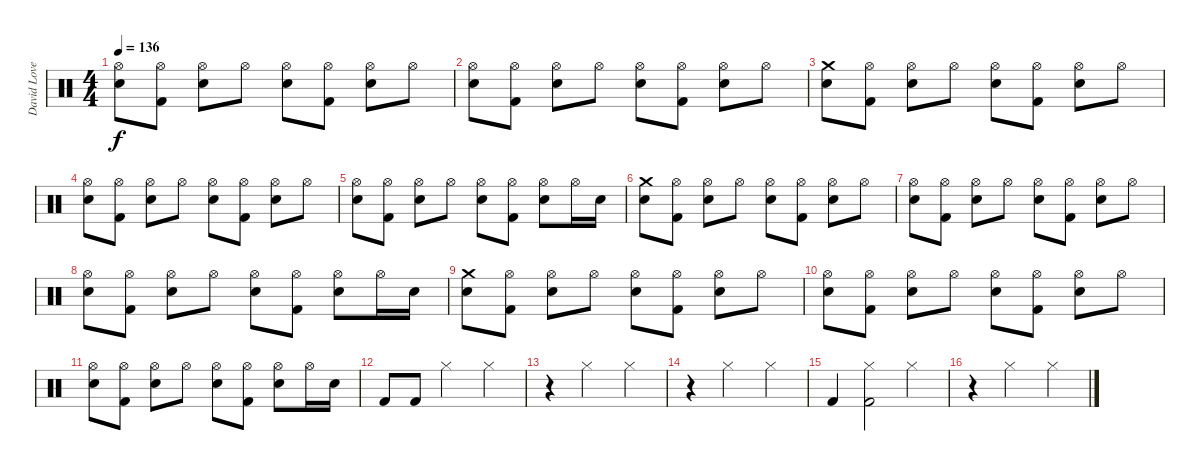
\track ("David Lovering (Drums)" "David Love") {instrument percussion}
\staff {score}
\articulation defaults
\ts (4 4)
\tempo 136
\clef neutral
\ks c
("Hi-Hat (open)" "Electric Snare (hit)").8{dy f} ("Hi-Hat (open)" "Kick (hit) 2").8 ("Hi-Hat (open)" "Electric Snare (hit)").8 "Hi-Hat (open)".8 ("Hi-Hat (open)" "Electric Snare (hit)").8 ("Hi-Hat (open)" "Kick (hit) 2").8 ("Hi-Hat (open)" "Electric Snare (hit)").8 "Hi-Hat (open)".8 |
("Hi-Hat (open)" "Electric Snare (hit)").8 ("Hi-Hat (open)" "Kick (hit) 2").8 ("Hi-Hat (open)" "Electric Snare (hit)").8 "Hi-Hat (open)".8 ("Hi-Hat (open)" "Electric Snare (hit)").8 ("Hi-Hat (open)" "Kick (hit) 2").8 ("Hi-Hat (open)" "Electric Snare (hit)").8 "Hi-Hat (open)".8 |
("Crash medium (hit)" "Electric Snare (hit)").8 ("Hi-Hat (open)" "Kick (hit) 2").8 ("Hi-Hat (open)" "Electric Snare (hit)").8 "Hi-Hat (open)".8 ("Hi-Hat (open)" "Electric Snare (hit)").8 ("Hi-Hat (open)" "Kick (hit) 2").8 ("Hi-Hat (open)" "Electric Snare (hit)").8 "Hi-Hat (open)".8 |
("Hi-Hat (open)" "Electric Snare (hit)").8 ("Hi-Hat (open)" "Kick (hit) 2").8 ("Hi-Hat (open)" "Electric Snare (hit)").8 "Hi-Hat (open)".8 ("Hi-Hat (open)" "Electric Snare (hit)").8 ("Hi-Hat (open)" "Kick (hit) 2").8 ("Hi-Hat (open)" "Electric Snare (hit)").8 "Hi-Hat (open)".8 |
("Hi-Hat (open)" "Electric Snare (hit)").8 ("Hi-Hat (open)" "Kick (hit) 2").8 ("Hi-Hat (open)" "Electric Snare (hit)").8 "Hi-Hat (open)".8 ("Hi-Hat (open)" "Electric Snare (hit)").8 ("Hi-Hat (open)" "Kick (hit) 2").8 ("Hi-Hat (open)" "Electric Snare (hit)").8 "Hi-Hat (open)".16 "Electric Snare (hit)".16 |
("Crash medium (hit)" "Electric Snare (hit)").8 ("Hi-Hat (open)" "Kick (hit) 2").8 ("Hi-Hat (open)" "Electric Snare (hit)").8 "Hi-Hat (open)".8 ("Hi-Hat (open)" "Electric Snare (hit)").8 ("Hi-Hat (open)" "Kick (hit) 2").8 ("Hi-Hat (open)" "Electric Snare (hit)").8 "Hi-Hat (open)".8 |
("Hi-Hat (open)" "Electric Snare (hit)").8 ("Hi-Hat (open)" "Kick (hit) 2").8 ("Hi-Hat (open)" "Electric Snare (hit)").8 "Hi-Hat (open)".8 ("Hi-Hat (open)" "Electric Snare (hit)").8 ("Hi-Hat (open)" "Kick (hit) 2").8 ("Hi-Hat (open)" "Electric Snare (hit)").8 "Hi-Hat (open)".8 |
("Hi-Hat (open)" "Electric Snare (hit)").8 ("Hi-Hat (open)" "Kick (hit) 2").8 ("Hi-Hat (open)" "Electric Snare (hit)").8 "Hi-Hat (open)".8 ("Hi-Hat (open)" "Electric Snare (hit)").8 ("Hi-Hat (open)" "Kick (hit) 2").8 ("Hi-Hat (open)" "Electric Snare (hit)").8 "Hi-Hat (open)".16 "Electric Snare (hit)".16 |
("Crash medium (hit)" "Electric Snare (hit)").8 ("Hi-Hat (open)" "Kick (hit) 2").8 ("Hi-Hat (open)" "Electric Snare (hit)").8 "Hi-Hat (open)".8 ("Hi-Hat (open)" "Electric Snare (hit)").8 ("Hi-Hat (open)" "Kick (hit) 2").8 ("Hi-Hat (open)" "Electric Snare (hit)").8 "Hi-Hat (open)".8 |
("Hi-Hat (open)" "Electric Snare (hit)").8 ("Hi-Hat (open)" "Kick (hit) 2").8 ("Hi-Hat (open)" "Electric Snare (hit)").8 "Hi-Hat (open)".8 ("Hi-Hat (open)" "Electric Snare (hit)").8 ("Hi-Hat (open)" "Kick (hit) 2").8 ("Hi-Hat (open)" "Electric Snare (hit)").8 "Hi-Hat (open)".8 |
("Hi-Hat (open)" "Electric Snare (hit)").8 ("Hi-Hat (open)" "Kick (hit) 2").8 ("Hi-Hat (open)" "Electric Snare (hit)").8 "Hi-Hat (open)".8 ("Hi-Hat (open)" "Electric Snare (hit)").8 ("Hi-Hat (open)" "Kick (hit) 2").8 ("Hi-Hat (open)" "Electric Snare (hit)").8 "Hi-Hat (open)".16 "Electric Snare (hit)".16 |
"Kick (hit) 2".8 "Kick (hit) 2".8 "Hi-Hat (closed)".2 "Hi-Hat (closed)".4 |
r.4 "Hi-Hat (closed)".2 "Hi-Hat (closed)".4 |
r.4 "Hi-Hat (closed)".2 "Hi-Hat (closed)".4 |
"Kick (hit) 2".4 ("Hi-Hat (closed)" "Kick (hit) 2").2 "Hi-Hat (closed)".4 |
r.4 "Hi-Hat (closed)".2 "Hi-Hat (closed)".4
